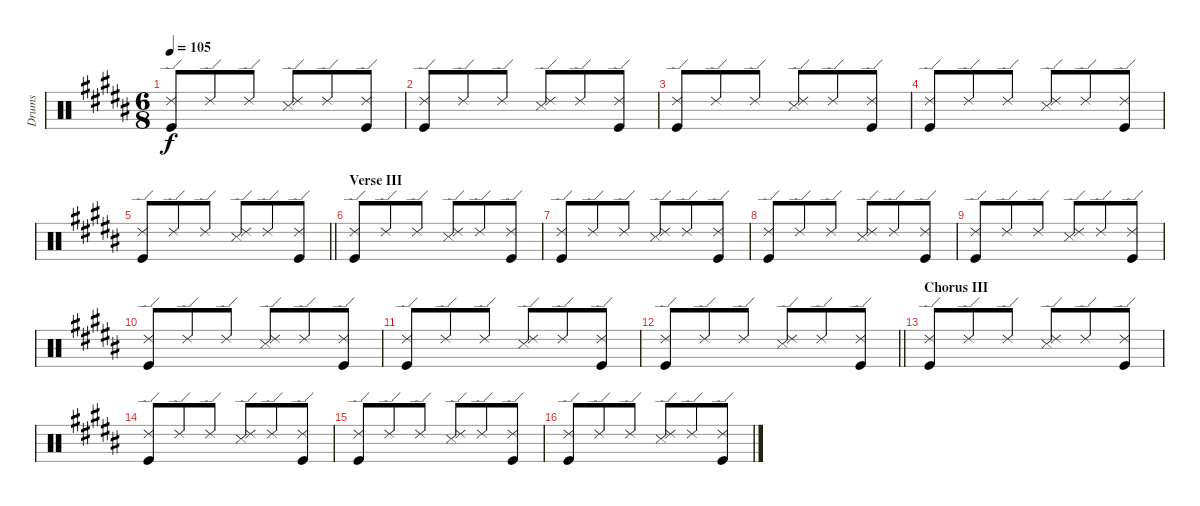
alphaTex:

\track ("Drums" "Drums") {instrument percussion}
\staff {score}
\articulation defaults
\ts (6 8)
\tempo 105
\clef neutral
\ks b
("Ride (edge) 2" "Kick (hit)").8{dy f} "Ride (edge) 2".8 "Ride (edge) 2".8 ("Ride (edge) 2" "Snare (side stick) 3").8 "Ride (edge) 2".8 ("Ride (edge) 2" "Kick (hit)").8 |
("Ride (edge) 2" "Kick (hit)").8 "Ride (edge) 2".8 "Ride (edge) 2".8 ("Ride (edge) 2" "Snare (side stick) 3").8 "Ride (edge) 2".8 ("Ride (edge) 2" "Kick (hit)").8 |
("Ride (edge) 2" "Kick (hit)").8 "Ride (edge) 2".8 "Ride (edge) 2".8 ("Ride (edge) 2" "Snare (side stick) 3").8 "Ride (edge) 2".8 ("Ride (edge) 2" "Kick (hit)").8 |
("Ride (edge) 2" "Kick (hit)").8 "Ride (edge) 2".8 "Ride (edge) 2".8 ("Ride (edge) 2" "Snare (side stick) 3").8 "Ride (edge) 2".8 ("Ride (edge) 2" "Kick (hit)").8 |
\barLineRight lightlight
("Ride (edge) 2" "Kick (hit)").8 "Ride (edge) 2".8 "Ride (edge) 2".8 ("Ride (edge) 2" "Snare (side stick) 3").8 "Ride (edge) 2".8 ("Ride (edge) 2" "Kick (hit)").8 |
\section ("" "Verse III")
("Ride (edge) 2" "Kick (hit)").8 "Ride (edge) 2".8 "Ride (edge) 2".8 ("Ride (edge) 2" "Snare (side stick) 3").8 "Ride (edge) 2".8 ("Ride (edge) 2" "Kick (hit)").8 |
("Ride (edge) 2" "Kick (hit)").8 "Ride (edge) 2".8 "Ride (edge) 2".8 ("Ride (edge) 2" "Snare (side stick) 3").8 "Ride (edge) 2".8 ("Ride (edge) 2" "Kick (hit)").8 |
("Ride (edge) 2" "Kick (hit)").8 "Ride (edge) 2".8 "Ride (edge) 2".8 ("Ride (edge) 2" "Snare (side stick) 3").8 "Ride (edge) 2".8 ("Ride (edge) 2" "Kick (hit)").8 |
("Ride (edge) 2" "Kick (hit)").8 "Ride (edge) 2".8 "Ride (edge) 2".8 ("Ride (edge) 2" "Snare (side stick) 3").8 "Ride (edge) 2".8 ("Ride (edge) 2" "Kick (hit)").8 |
("Ride (edge) 2" "Kick (hit)").8 "Ride (edge) 2".8 "Ride (edge) 2".8 ("Ride (edge) 2" "Snare (side stick) 3").8 "Ride (edge) 2".8 ("Ride (edge) 2" "Kick (hit)").8 |
("Ride (edge) 2" "Kick (hit)").8 "Ride (edge) 2".8 "Ride (edge) 2".8 ("Ride (edge) 2" "Snare (side stick) 3").8 "Ride (edge) 2".8 ("Ride (edge) 2" "Kick (hit)").8 |
\barLineRight lightlight
("Ride (edge) 2" "Kick (hit)").8 "Ride (edge) 2".8 "Ride (edge) 2".8 ("Ride (edge) 2" "Snare (side stick) 3").8 "Ride (edge) 2".8 ("Ride (edge) 2" "Kick (hit)").8 |
\section ("" "Chorus III")
("Ride (edge) 2" "Kick (hit)").8 "Ride (edge) 2".8 "Ride (edge) 2".8 ("Ride (edge) 2" "Snare (side stick) 3").8 "Ride (edge) 2".8 ("Ride (edge) 2" "Kick (hit)").8 |
("Ride (edge) 2" "Kick (hit)").8 "Ride (edge) 2".8 "Ride (edge) 2".8 ("Ride (edge) 2" "Snare (side stick) 3").8 "Ride (edge) 2".8 ("Ride (edge) 2" "Kick (hit)").8 |
("Ride (edge) 2" "Kick (hit)").8 "Ride (edge) 2".8 "Ride (edge) 2".8 ("Ride (edge) 2" "Snare (side stick) 3").8 "Ride (edge) 2".8 ("Ride (edge) 2" "Kick (hit)").8 |
("Ride (edge) 2" "Kick (hit)").8 "Ride (edge) 2".8 "Ride (edge) 2".8 ("Ride (edge) 2" "Snare (side stick) 3").8 "Ride (edge) 2".8 ("Ride (edge) 2" "Kick (hit)").8
